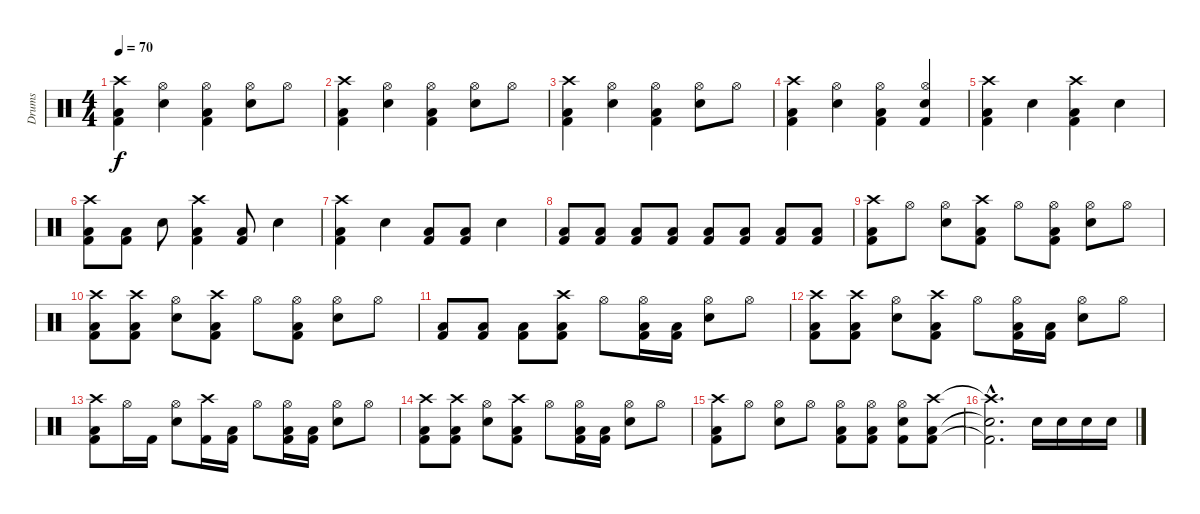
\track ("Drums" "Drums") {instrument percussion}
\staff {score}
\articulation defaults
\ts (4 4)
\tempo 70
\clef neutral
\ks c
("Crash high (hit)" "Low Floor Tom (hit)" "Kick (hit) 2").4{dy f} ("Hi-Hat (open)" "Snare (hit) 2").4 ("Hi-Hat (open)" "Low Floor Tom (hit)" "Kick (hit) 2").4 ("Hi-Hat (open)" "Snare (hit) 2").8 "Hi-Hat (open)".8 |
("Crash high (hit)" "Low Floor Tom (hit)" "Kick (hit) 2").4 ("Hi-Hat (open)" "Snare (hit) 2").4 ("Hi-Hat (open)" "Low Floor Tom (hit)" "Kick (hit) 2").4 ("Hi-Hat (open)" "Snare (hit) 2").8 "Hi-Hat (open)".8 |
("Crash high (hit)" "Low Floor Tom (hit)" "Kick (hit) 2").4 ("Hi-Hat (open)" "Snare (hit) 2").4 ("Hi-Hat (open)" "Low Floor Tom (hit)" "Kick (hit) 2").4 ("Hi-Hat (open)" "Snare (hit) 2").8 "Hi-Hat (open)".8 |
("Crash high (hit)" "Low Floor Tom (hit)" "Kick (hit) 2").4 ("Hi-Hat (open)" "Snare (hit) 2").4 ("Hi-Hat (open)" "Low Floor Tom (hit)" "Kick (hit) 2").4 ("Hi-Hat (open)" "Snare (hit) 2" "Kick (hit) 2").4 |
("Crash high (hit)" "Low Floor Tom (hit)" "Kick (hit) 2").4 "Snare (hit) 2".4 ("Crash high (hit)" "Low Floor Tom (hit)" "Kick (hit) 2").4 "Snare (hit) 2".4 |
("Crash high (hit)" "Low Floor Tom (hit)" "Kick (hit) 2").8 ("Low Floor Tom (hit)" "Kick (hit) 2").8 "Snare (hit) 2".8 ("Crash high (hit)" "Low Floor Tom (hit)" "Kick (hit) 2").4 ("Low Floor Tom (hit)" "Kick (hit) 2").8 "Snare (hit) 2".4 |
("Crash high (hit)" "Low Floor Tom (hit)" "Kick (hit) 2").4 "Snare (hit) 2".4 ("Low Floor Tom (hit)" "Kick (hit) 2").8 ("Low Floor Tom (hit)" "Kick (hit) 2").8 "Snare (hit) 2".4 |
("Low Floor Tom (hit)" "Kick (hit) 2").8 ("Low Floor Tom (hit)" "Kick (hit) 2").8 ("Low Floor Tom (hit)" "Kick (hit) 2").8 ("Low Floor Tom (hit)" "Kick (hit) 2").8 ("Low Floor Tom (hit)" "Kick (hit) 2").8 ("Low Floor Tom (hit)" "Kick (hit) 2").8 ("Low Floor Tom (hit)" "Kick (hit) 2").8 ("Low Floor Tom (hit)" "Kick (hit) 2").8 |
("Crash high (hit)" "Low Floor Tom (hit)" "Kick (hit) 2").8 "Hi-Hat (open)".8 ("Hi-Hat (open)" "Snare (hit) 2").8 ("Crash high (hit)" "Low Floor Tom (hit)" "Kick (hit) 2").8 "Hi-Hat (open)".8 ("Hi-Hat (open)" "Low Floor Tom (hit)" "Kick (hit) 2").8 ("Hi-Hat (open)" "Snare (hit) 2").8 "Hi-Hat (open)".8 |
("Crash high (hit)" "Low Floor Tom (hit)" "Kick (hit) 2").8 ("Crash high (hit)" "Low Floor Tom (hit)" "Kick (hit) 2").8 ("Hi-Hat (open)" "Snare (hit) 2").8 ("Crash high (hit)" "Low Floor Tom (hit)" "Kick (hit) 2").8 "Hi-Hat (open)".8 ("Hi-Hat (open)" "Low Floor Tom (hit)" "Kick (hit) 2").8 ("Hi-Hat (open)" "Snare (hit) 2").8 "Hi-Hat (open)".8 |
("Low Floor Tom (hit)" "Kick (hit) 2").8 ("Low Floor Tom (hit)" "Kick (hit) 2").8 ("Low Floor Tom (hit)" "Kick (hit) 2").8 ("Crash high (hit)" "Low Floor Tom (hit)" "Kick (hit) 2").8 "Hi-Hat (open)".8 ("Hi-Hat (open)" "Low Floor Tom (hit)" "Kick (hit) 2").16 ("Low Floor Tom (hit)" "Kick (hit) 2").16 ("Hi-Hat (open)" "Snare (hit) 2").8 "Hi-Hat (open)".8 |
("Crash high (hit)" "Low Floor Tom (hit)" "Kick (hit) 2").8 ("Crash high (hit)" "Low Floor Tom (hit)" "Kick (hit) 2").8 ("Hi-Hat (open)" "Snare (hit) 2").8 ("Crash high (hit)" "Low Floor Tom (hit)" "Kick (hit) 2").8 "Hi-Hat (open)".8 ("Hi-Hat (open)" "Low Floor Tom (hit)" "Kick (hit) 2").16 ("Low Floor Tom (hit)" "Kick (hit) 2").16 ("Hi-Hat (open)" "Snare (hit) 2").8 "Hi-Hat (open)".8 |
("Crash high (hit)" "Low Floor Tom (hit)" "Kick (hit) 2").8 "Hi-Hat (open)".16 "Kick (hit) 2".16 ("Hi-Hat (open)" "Snare (hit) 2").8 ("Crash high (hit)" "Kick (hit) 2").16 ("Low Floor Tom (hit)" "Kick (hit) 2").16 "Hi-Hat (open)".8 ("Hi-Hat (open)" "Low Floor Tom (hit)" "Kick (hit) 2").16 ("Low Floor Tom (hit)" "Kick (hit) 2").16 ("Hi-Hat (open)" "Snare (hit) 2").8 "Hi-Hat (open)".8 |
("Crash high (hit)" "Low Floor Tom (hit)" "Kick (hit) 2").8 ("Crash high (hit)" "Low Floor Tom (hit)" "Kick (hit) 2").8 ("Hi-Hat (open)" "Snare (hit) 2").8 ("Crash high (hit)" "Low Floor Tom (hit)" "Kick (hit) 2").8 "Hi-Hat (open)".8 ("Hi-Hat (open)" "Low Floor Tom (hit)" "Kick (hit) 2").16 ("Low Floor Tom (hit)" "Kick (hit) 2").16 ("Hi-Hat (open)" "Snare (hit) 2").8 "Hi-Hat (open)".8 |
("Crash high (hit)" "Low Floor Tom (hit)" "Kick (hit) 2").8 "Hi-Hat (open)".8 ("Hi-Hat (open)" "Snare (hit) 2").8 "Hi-Hat (open)".8 ("Hi-Hat (open)" "Low Floor Tom (hit)" "Kick (hit) 2").8 ("Hi-Hat (open)" "Low Floor Tom (hit)" "Kick (hit) 2").8 ("Hi-Hat (open)" "Snare (hit) 2" "Kick (hit) 2").8 ("Crash high (hit)" "Low Floor Tom (hit)" "Kick (hit) 2").8 |
("Crash high (hit)"{hac t} "Snare (hit)"{hac t} "Kick (hit) 2"{hac t}).2{d} "Snare (hit) 2".16 "Snare (hit) 2".16 "Snare (hit) 2".16 "Snare (hit) 2".16
